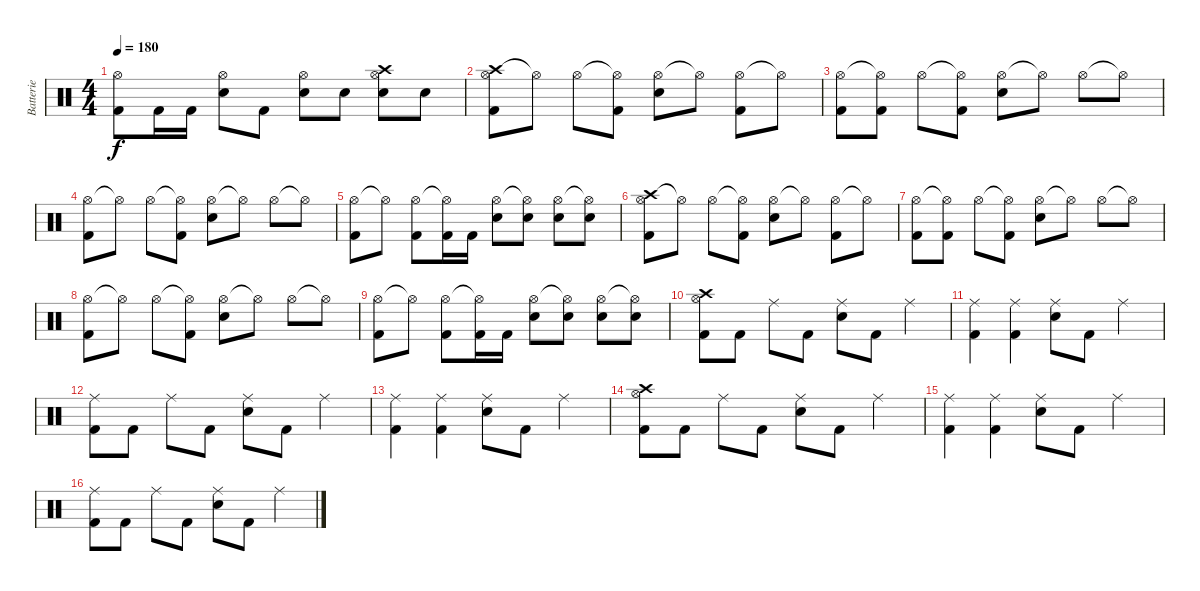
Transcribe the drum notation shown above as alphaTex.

\track ("Batterie" "Batterie") {instrument percussion}
\staff {score}
\articulation defaults
\ts (4 4)
\tempo 180
\clef neutral
\ks c
("Hi-Hat (open)" "Kick (hit) 2").8{dy f} "Kick (hit) 2".16 "Kick (hit) 2".16 ("Hi-Hat (open)" "Electric Snare (hit)").8 "Kick (hit) 2".8 ("Hi-Hat (open)" "Electric Snare (hit)").8 "Electric Snare (hit)".8 ("Crash high (hit)" "Hi-Hat (open)" "Electric Snare (hit)").8 "Electric Snare (hit)".8 |
("Crash high (hit)" "Hi-Hat (open)" "Kick (hit) 2").8 "Hi-Hat (open)"{t}.8 "Hi-Hat (open)".8 ("Hi-Hat (open)"{t} "Kick (hit) 2").8 ("Hi-Hat (open)" "Electric Snare (hit)").8 "Hi-Hat (open)"{t}.8 ("Hi-Hat (open)" "Kick (hit) 2").8 "Hi-Hat (open)"{t}.8 |
("Hi-Hat (open)" "Kick (hit) 2").8 ("Hi-Hat (open)"{t} "Kick (hit) 2").8 "Hi-Hat (open)".8 ("Hi-Hat (open)"{t} "Kick (hit) 2").8 ("Hi-Hat (open)" "Electric Snare (hit)").8 "Hi-Hat (open)"{t}.8 "Hi-Hat (open)".8 "Hi-Hat (open)"{t}.8 |
("Hi-Hat (open)" "Kick (hit) 2").8 "Hi-Hat (open)"{t}.8 "Hi-Hat (open)".8 ("Hi-Hat (open)"{t} "Kick (hit) 2").8 ("Hi-Hat (open)" "Electric Snare (hit)").8 "Hi-Hat (open)"{t}.8 "Hi-Hat (open)".8 "Hi-Hat (open)"{t}.8 |
("Hi-Hat (open)" "Kick (hit) 2").8 "Hi-Hat (open)"{t}.8 ("Hi-Hat (open)" "Kick (hit) 2").8 ("Hi-Hat (open)"{t} "Kick (hit) 2").16 "Kick (hit) 2".16 ("Hi-Hat (open)" "Electric Snare (hit)").8 ("Hi-Hat (open)"{t} "Electric Snare (hit)").8 ("Hi-Hat (open)" "Electric Snare (hit)").8 ("Hi-Hat (open)"{t} "Electric Snare (hit)").8 |
("Crash high (hit)" "Hi-Hat (open)" "Kick (hit) 2").8 "Hi-Hat (open)"{t}.8 "Hi-Hat (open)".8 ("Hi-Hat (open)"{t} "Kick (hit) 2").8 ("Hi-Hat (open)" "Electric Snare (hit)").8 "Hi-Hat (open)"{t}.8 ("Hi-Hat (open)" "Kick (hit) 2").8 "Hi-Hat (open)"{t}.8 |
("Hi-Hat (open)" "Kick (hit) 2").8 ("Hi-Hat (open)"{t} "Kick (hit) 2").8 "Hi-Hat (open)".8 ("Hi-Hat (open)"{t} "Kick (hit) 2").8 ("Hi-Hat (open)" "Electric Snare (hit)").8 "Hi-Hat (open)"{t}.8 "Hi-Hat (open)".8 "Hi-Hat (open)"{t}.8 |
("Hi-Hat (open)" "Kick (hit) 2").8 "Hi-Hat (open)"{t}.8 "Hi-Hat (open)".8 ("Hi-Hat (open)"{t} "Kick (hit) 2").8 ("Hi-Hat (open)" "Electric Snare (hit)").8 "Hi-Hat (open)"{t}.8 "Hi-Hat (open)".8 "Hi-Hat (open)"{t}.8 |
("Hi-Hat (open)" "Kick (hit) 2").8 "Hi-Hat (open)"{t}.8 ("Hi-Hat (open)" "Kick (hit) 2").8 ("Hi-Hat (open)"{t} "Kick (hit) 2").16 "Kick (hit) 2".16 ("Hi-Hat (open)" "Electric Snare (hit)").8 ("Hi-Hat (open)"{t} "Electric Snare (hit)").8 ("Hi-Hat (open)" "Electric Snare (hit)").8 ("Hi-Hat (open)"{t} "Electric Snare (hit)").8 |
("Crash high (hit)" "Hi-Hat (open)" "Kick (hit) 2").8 "Kick (hit) 2".8 "Ride (middle)".8 "Kick (hit) 2".8 ("Ride (middle)" "Electric Snare (hit)").8 "Kick (hit) 2".8 "Ride (middle)".4 |
("Ride (middle)" "Kick (hit) 2").4 ("Ride (middle)" "Kick (hit) 2").4 ("Ride (middle)" "Electric Snare (hit)").8 "Kick (hit) 2".8 "Ride (middle)".4 |
("Ride (middle)" "Kick (hit) 2").8 "Kick (hit) 2".8 "Ride (middle)".8 "Kick (hit) 2".8 ("Ride (middle)" "Electric Snare (hit)").8 "Kick (hit) 2".8 "Ride (middle)".4 |
("Ride (middle)" "Kick (hit) 2").4 ("Ride (middle)" "Kick (hit) 2").4 ("Ride (middle)" "Electric Snare (hit)").8 "Kick (hit) 2".8 "Ride (middle)".4 |
("Crash high (hit)" "Hi-Hat (open)" "Kick (hit) 2").8 "Kick (hit) 2".8 "Ride (middle)".8 "Kick (hit) 2".8 ("Ride (middle)" "Electric Snare (hit)").8 "Kick (hit) 2".8 "Ride (middle)".4 |
("Ride (middle)" "Kick (hit) 2").4 ("Ride (middle)" "Kick (hit) 2").4 ("Ride (middle)" "Electric Snare (hit)").8 "Kick (hit) 2".8 "Ride (middle)".4 |
("Ride (middle)" "Kick (hit) 2").8 "Kick (hit) 2".8 "Ride (middle)".8 "Kick (hit) 2".8 ("Ride (middle)" "Electric Snare (hit)").8 "Kick (hit) 2".8 "Ride (middle)".4
